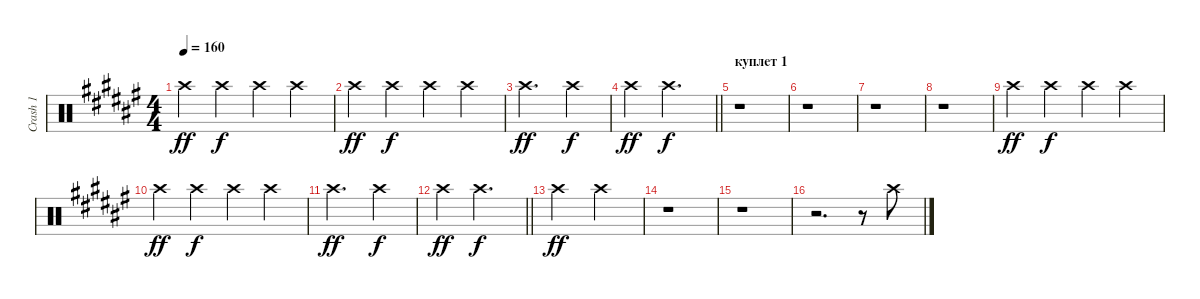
\track ("Crash 1" "Crash 1") {instrument percussion}
\staff {score}
\articulation defaults
\ts (4 4)
\tempo 160
\clef neutral
\ks d#minor "Crash high (hit)".4{dy ff} "Crash high (hit)".4{dy f} "Crash high (hit)".4 "Crash high (hit)".4
|
"Crash high (hit)".4{dy ff} "Crash high (hit)".4{dy f} "Crash high (hit)".4 "Crash high (hit)".4 |
"Crash high (hit)".2{d dy ff} "Crash high (hit)".4{dy f} |
\barLineRight lightlight "Crash high (hit)".4{dy ff} "Crash high (hit)".2{d dy f}
|
\section ("" "куплет 1")
r.1 |
r.1 |
r.1 |
r.1 |
"Crash high (hit)".4{dy ff} "Crash high (hit)".4{dy f} "Crash high (hit)".4 "Crash high (hit)".4 |
"Crash high (hit)".4{dy ff} "Crash high (hit)".4{dy f} "Crash high (hit)".4 "Crash high (hit)".4 |
"Crash high (hit)".2{d dy ff} "Crash high (hit)".4{dy f} |
\barLineRight lightlight "Crash high (hit)".4{dy ff} "Crash high (hit)".2{d dy f}
|
"Crash high (hit)".2{dy ff} "Crash high (hit)".2 |
r.1 |
r.1 |
r.2{d} r.8 "Crash high (hit)".8
